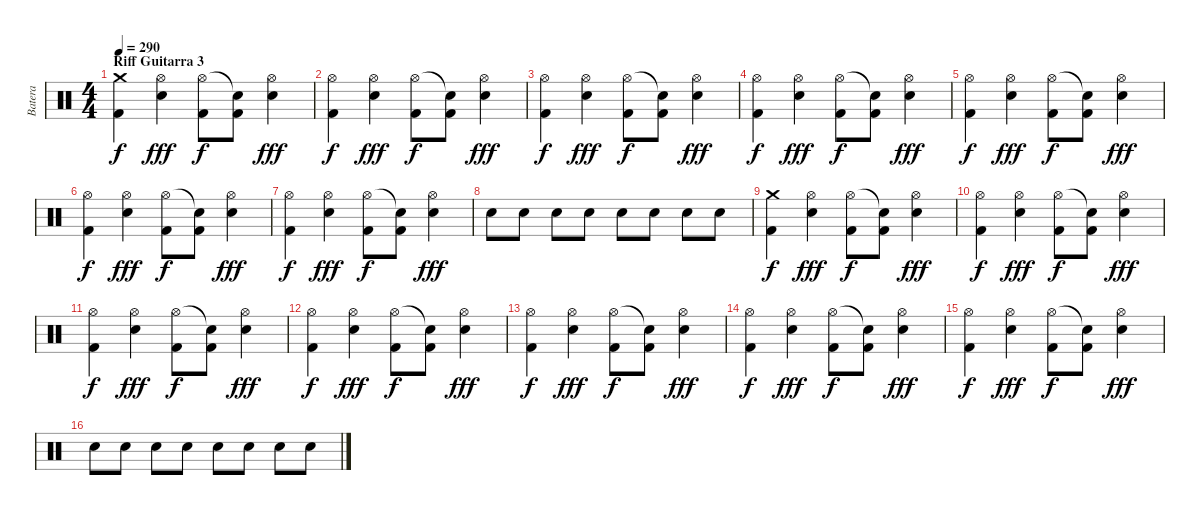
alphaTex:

\track ("Batera" "Batera") {instrument percussion}
\staff {score}
\articulation defaults
\ts (4 4)
\section ("" "Riff Guitarra 3")
\tempo 290
\clef neutral
\ks c
("Crash medium (hit)" "Kick (hit) 2").4{dy f} ("Hi-Hat (open)" "Electric Snare (hit)").4{dy fff} ("Hi-Hat (open)" "Kick (hit) 2").8{dy f} ("Snare (hit)"{t} "Kick (hit) 2").8 ("Hi-Hat (open)" "Electric Snare (hit)").4{dy fff} |
("Hi-Hat (open)" "Kick (hit) 2").4{dy f} ("Hi-Hat (open)" "Electric Snare (hit)").4{dy fff} ("Hi-Hat (open)" "Kick (hit) 2").8{dy f} ("Snare (hit)"{t} "Kick (hit) 2").8 ("Hi-Hat (open)" "Electric Snare (hit)").4{dy fff} |
("Hi-Hat (open)" "Kick (hit) 2").4{dy f} ("Hi-Hat (open)" "Electric Snare (hit)").4{dy fff} ("Hi-Hat (open)" "Kick (hit) 2").8{dy f} ("Snare (hit)"{t} "Kick (hit) 2").8 ("Hi-Hat (open)" "Electric Snare (hit)").4{dy fff} |
("Hi-Hat (open)" "Kick (hit) 2").4{dy f} ("Hi-Hat (open)" "Electric Snare (hit)").4{dy fff} ("Hi-Hat (open)" "Kick (hit) 2").8{dy f} ("Snare (hit)"{t} "Kick (hit) 2").8 ("Hi-Hat (open)" "Electric Snare (hit)").4{dy fff} |
("Hi-Hat (open)" "Kick (hit) 2").4{dy f} ("Hi-Hat (open)" "Electric Snare (hit)").4{dy fff} ("Hi-Hat (open)" "Kick (hit) 2").8{dy f} ("Snare (hit)"{t} "Kick (hit) 2").8 ("Hi-Hat (open)" "Electric Snare (hit)").4{dy fff} |
("Hi-Hat (open)" "Kick (hit) 2").4{dy f} ("Hi-Hat (open)" "Electric Snare (hit)").4{dy fff} ("Hi-Hat (open)" "Kick (hit) 2").8{dy f} ("Snare (hit)"{t} "Kick (hit) 2").8 ("Hi-Hat (open)" "Electric Snare (hit)").4{dy fff} |
("Hi-Hat (open)" "Kick (hit) 2").4{dy f} ("Hi-Hat (open)" "Electric Snare (hit)").4{dy fff} ("Hi-Hat (open)" "Kick (hit) 2").8{dy f} ("Snare (hit)"{t} "Kick (hit) 2").8 ("Hi-Hat (open)" "Electric Snare (hit)").4{dy fff} |
"Electric Snare (hit)".8 "Electric Snare (hit)".8 "Electric Snare (hit)".8 "Electric Snare (hit)".8 "Electric Snare (hit)".8 "Electric Snare (hit)".8 "Electric Snare (hit)".8 "Electric Snare (hit)".8 |
("Crash medium (hit)" "Kick (hit) 2").4{dy f} ("Hi-Hat (open)" "Electric Snare (hit)").4{dy fff} ("Hi-Hat (open)" "Kick (hit) 2").8{dy f} ("Snare (hit)"{t} "Kick (hit) 2").8 ("Hi-Hat (open)" "Electric Snare (hit)").4{dy fff} |
("Hi-Hat (open)" "Kick (hit) 2").4{dy f} ("Hi-Hat (open)" "Electric Snare (hit)").4{dy fff} ("Hi-Hat (open)" "Kick (hit) 2").8{dy f} ("Snare (hit)"{t} "Kick (hit) 2").8 ("Hi-Hat (open)" "Electric Snare (hit)").4{dy fff} |
("Hi-Hat (open)" "Kick (hit) 2").4{dy f} ("Hi-Hat (open)" "Electric Snare (hit)").4{dy fff} ("Hi-Hat (open)" "Kick (hit) 2").8{dy f} ("Snare (hit)"{t} "Kick (hit) 2").8 ("Hi-Hat (open)" "Electric Snare (hit)").4{dy fff} |
("Hi-Hat (open)" "Kick (hit) 2").4{dy f} ("Hi-Hat (open)" "Electric Snare (hit)").4{dy fff} ("Hi-Hat (open)" "Kick (hit) 2").8{dy f} ("Snare (hit)"{t} "Kick (hit) 2").8 ("Hi-Hat (open)" "Electric Snare (hit)").4{dy fff} |
("Hi-Hat (open)" "Kick (hit) 2").4{dy f} ("Hi-Hat (open)" "Electric Snare (hit)").4{dy fff} ("Hi-Hat (open)" "Kick (hit) 2").8{dy f} ("Snare (hit)"{t} "Kick (hit) 2").8 ("Hi-Hat (open)" "Electric Snare (hit)").4{dy fff} |
("Hi-Hat (open)" "Kick (hit) 2").4{dy f} ("Hi-Hat (open)" "Electric Snare (hit)").4{dy fff} ("Hi-Hat (open)" "Kick (hit) 2").8{dy f} ("Snare (hit)"{t} "Kick (hit) 2").8 ("Hi-Hat (open)" "Electric Snare (hit)").4{dy fff} |
("Hi-Hat (open)" "Kick (hit) 2").4{dy f} ("Hi-Hat (open)" "Electric Snare (hit)").4{dy fff} ("Hi-Hat (open)" "Kick (hit) 2").8{dy f} ("Snare (hit)"{t} "Kick (hit) 2").8 ("Hi-Hat (open)" "Electric Snare (hit)").4{dy fff} |
"Electric Snare (hit)".8 "Electric Snare (hit)".8 "Electric Snare (hit)".8 "Electric Snare (hit)".8 "Electric Snare (hit)".8 "Electric Snare (hit)".8 "Electric Snare (hit)".8 "Electric Snare (hit)".8
